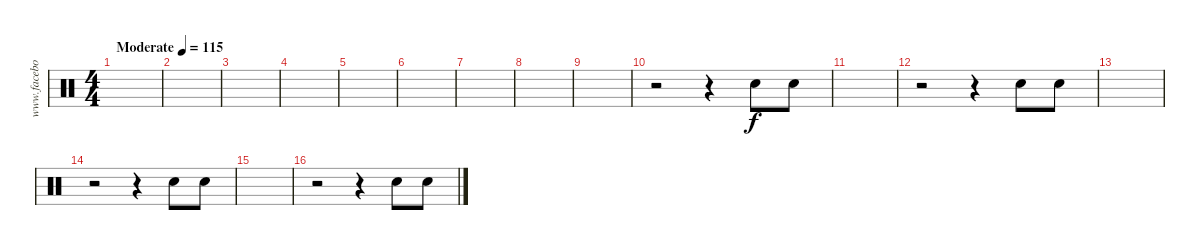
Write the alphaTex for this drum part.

\track ("www.facebook.com/th3fishers" "www.facebo") {instrument percussion}
\staff {score}
\articulation defaults
\ts (4 4)
\tempo (115 "Moderate")
\clef neutral
\ks c
|
|
|
|
|
|
|
|
|
r.2 r.4 "Hand Clap (hit)".8 "Hand Clap (hit)".8 |
|
r.2 r.4 "Hand Clap (hit)".8 "Hand Clap (hit)".8 |
|
r.2 r.4 "Hand Clap (hit)".8 "Hand Clap (hit)".8 |
|
r.2 r.4 "Hand Clap (hit)".8 "Hand Clap (hit)".8
